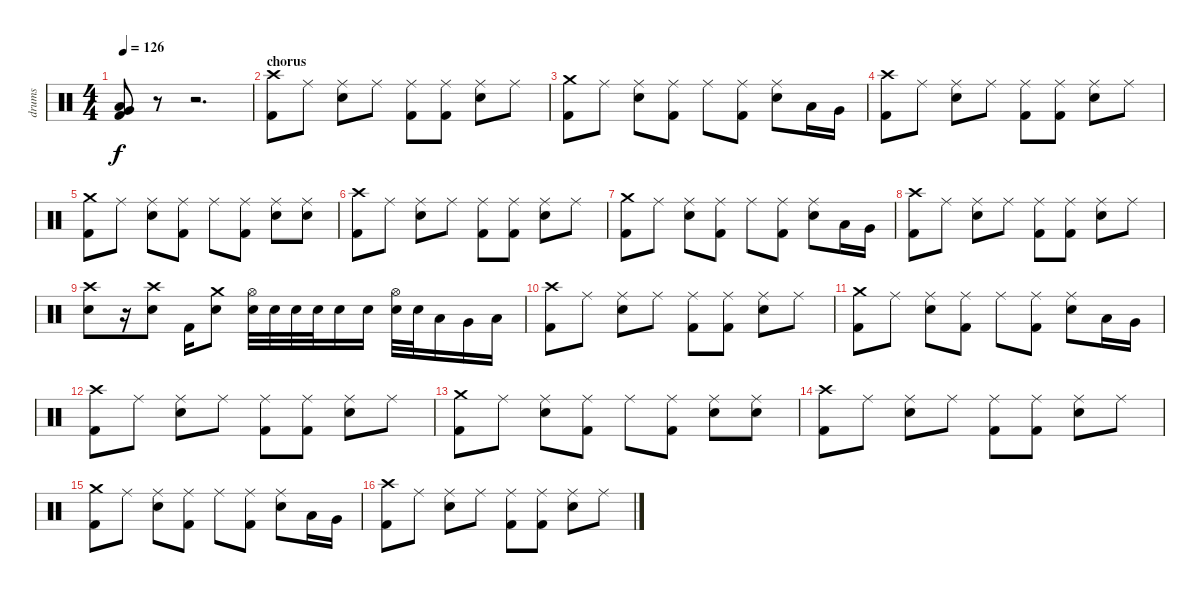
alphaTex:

\track ("drums" "drums") {instrument percussion}
\staff {score}
\articulation defaults
\ts (4 4)
\tempo 126
\clef neutral
\ks c
("Low Floor Tom (hit)" "Very Low Tom (hit)" "Kick (hit) 2").8{dy f} r.8 r.2{d} |
\section ("" "chorus")
("Crash high (hit)" "Kick (hit) 2").8 "Ride (middle)".8 ("Ride (middle)" "Electric Snare (hit)").8 "Ride (middle)".8 ("Ride (middle)" "Kick (hit) 2").8 ("Ride (middle)" "Kick (hit) 2").8 ("Ride (middle)" "Electric Snare (hit)").8 "Ride (middle)".8 |
("Crash medium (hit)" "Kick (hit) 2").8 "Ride (middle)".8 ("Ride (middle)" "Electric Snare (hit)").8 ("Ride (middle)" "Kick (hit) 2").8 "Ride (middle)".8 ("Ride (middle)" "Kick (hit) 2").8 ("Ride (middle)" "Electric Snare (hit)").8 "Low Tom (hit)".16 "Very Low Tom (hit)".16 |
("Crash high (hit)" "Kick (hit) 2").8 "Ride (middle)".8 ("Ride (middle)" "Electric Snare (hit)").8 "Ride (middle)".8 ("Ride (middle)" "Kick (hit) 2").8 ("Ride (middle)" "Kick (hit) 2").8 ("Ride (middle)" "Electric Snare (hit)").8 "Ride (middle)".8 |
("Crash medium (hit)" "Kick (hit) 2").8 "Ride (middle)".8 ("Ride (middle)" "Electric Snare (hit)").8 ("Ride (middle)" "Kick (hit) 2").8 "Ride (middle)".8 ("Ride (middle)" "Kick (hit) 2").8 ("Ride (middle)" "Electric Snare (hit)").8 ("Ride (middle)" "Electric Snare (hit)").8 |
("Crash high (hit)" "Kick (hit) 2").8 "Ride (middle)".8 ("Ride (middle)" "Electric Snare (hit)").8 "Ride (middle)".8 ("Ride (middle)" "Kick (hit) 2").8 ("Ride (middle)" "Kick (hit) 2").8 ("Ride (middle)" "Electric Snare (hit)").8 "Ride (middle)".8 |
("Crash medium (hit)" "Kick (hit) 2").8 "Ride (middle)".8 ("Ride (middle)" "Electric Snare (hit)").8 ("Ride (middle)" "Kick (hit) 2").8 "Ride (middle)".8 ("Ride (middle)" "Kick (hit) 2").8 ("Ride (middle)" "Electric Snare (hit)").8 "Low Tom (hit)".16 "Very Low Tom (hit)".16 |
("Crash high (hit)" "Kick (hit) 2").8 "Ride (middle)".8 ("Ride (middle)" "Electric Snare (hit)").8 "Ride (middle)".8 ("Ride (middle)" "Kick (hit) 2").8 ("Ride (middle)" "Kick (hit) 2").8 ("Ride (middle)" "Electric Snare (hit)").8 "Ride (middle)".8 |
("Crash high (hit)" "Electric Snare (hit)").8 r.16 ("Crash high (hit)" "Electric Snare (hit)").8 "Kick (hit) 2".16 ("Crash medium (hit)" "Electric Snare (hit)").8 ("Hi-Hat (open)" "Electric Snare (hit)").32 "Electric Snare (hit)".32 "Electric Snare (hit)".32 "Electric Snare (hit)".32 "Electric Snare (hit)".16 "Electric Snare (hit)".16 ("Hi-Hat (open)" "Electric Snare (hit)").32 "Electric Snare (hit)".32 "Low Tom (hit)".16 "Very Low Tom (hit)".16 "Low Floor Tom (hit)".16 |
("Crash high (hit)" "Kick (hit) 2").8 "Ride (middle)".8 ("Ride (middle)" "Electric Snare (hit)").8 "Ride (middle)".8 ("Ride (middle)" "Kick (hit) 2").8 ("Ride (middle)" "Kick (hit) 2").8 ("Ride (middle)" "Electric Snare (hit)").8 "Ride (middle)".8 |
("Crash medium (hit)" "Kick (hit) 2").8 "Ride (middle)".8 ("Ride (middle)" "Electric Snare (hit)").8 ("Ride (middle)" "Kick (hit) 2").8 "Ride (middle)".8 ("Ride (middle)" "Kick (hit) 2").8 ("Ride (middle)" "Electric Snare (hit)").8 "Low Tom (hit)".16 "Very Low Tom (hit)".16 |
("Crash high (hit)" "Kick (hit) 2").8 "Ride (middle)".8 ("Ride (middle)" "Electric Snare (hit)").8 "Ride (middle)".8 ("Ride (middle)" "Kick (hit) 2").8 ("Ride (middle)" "Kick (hit) 2").8 ("Ride (middle)" "Electric Snare (hit)").8 "Ride (middle)".8 |
("Crash medium (hit)" "Kick (hit) 2").8 "Ride (middle)".8 ("Ride (middle)" "Electric Snare (hit)").8 ("Ride (middle)" "Kick (hit) 2").8 "Ride (middle)".8 ("Ride (middle)" "Kick (hit) 2").8 ("Ride (middle)" "Electric Snare (hit)").8 ("Ride (middle)" "Electric Snare (hit)").8 |
("Crash high (hit)" "Kick (hit) 2").8 "Ride (middle)".8 ("Ride (middle)" "Electric Snare (hit)").8 "Ride (middle)".8 ("Ride (middle)" "Kick (hit) 2").8 ("Ride (middle)" "Kick (hit) 2").8 ("Ride (middle)" "Electric Snare (hit)").8 "Ride (middle)".8 |
("Crash medium (hit)" "Kick (hit) 2").8 "Ride (middle)".8 ("Ride (middle)" "Electric Snare (hit)").8 ("Ride (middle)" "Kick (hit) 2").8 "Ride (middle)".8 ("Ride (middle)" "Kick (hit) 2").8 ("Ride (middle)" "Electric Snare (hit)").8 "Low Tom (hit)".16 "Very Low Tom (hit)".16 |
("Crash high (hit)" "Kick (hit) 2").8 "Ride (middle)".8 ("Ride (middle)" "Electric Snare (hit)").8 "Ride (middle)".8 ("Ride (middle)" "Kick (hit) 2").8 ("Ride (middle)" "Kick (hit) 2").8 ("Ride (middle)" "Electric Snare (hit)").8 "Ride (middle)".8
